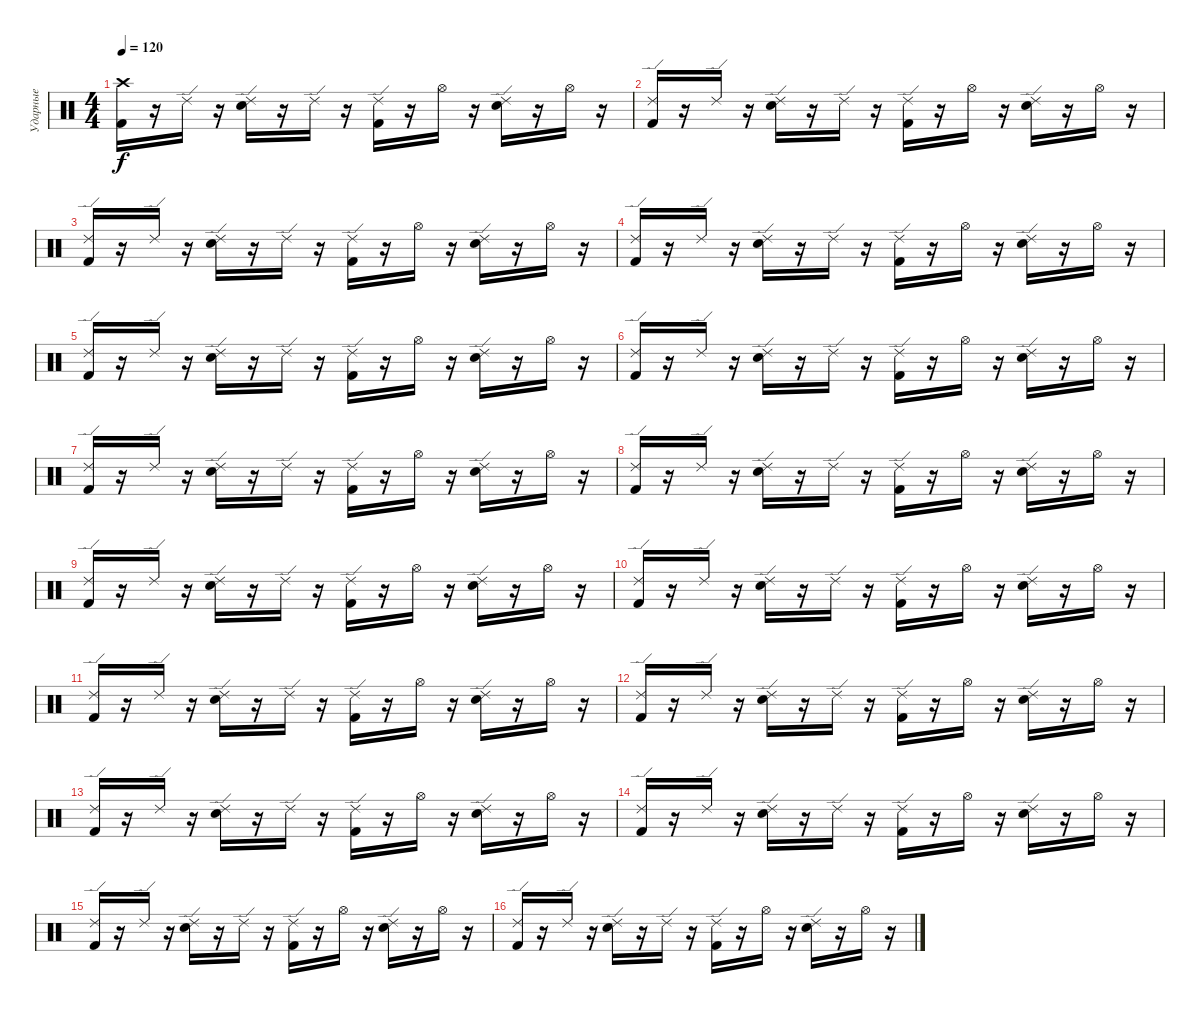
\track ("Ударные" "Ударные") {instrument percussion}
\staff {score}
\articulation defaults
\ts (4 4)
\tempo 120
\clef neutral
\ks c
("Crash high (hit)" "Kick (hit) 2").16{dy f} r.16 "Ride (edge) 2".16 r.16 ("Ride (edge) 2" "Electric Snare (hit)").16 r.16 "Ride (edge) 2".16 r.16 ("Ride (edge) 2" "Kick (hit) 2").16 r.16 "Hi-Hat (open)".16 r.16 ("Ride (edge) 2" "Electric Snare (hit)").16 r.16 "Hi-Hat (open)".16 r.16 |
("Ride (edge) 2" "Kick (hit) 2").16 r.16 "Ride (edge) 2".16 r.16 ("Ride (edge) 2" "Electric Snare (hit)").16 r.16 "Ride (edge) 2".16 r.16 ("Ride (edge) 2" "Kick (hit) 2").16 r.16 "Hi-Hat (open)".16 r.16 ("Ride (edge) 2" "Electric Snare (hit)").16 r.16 "Hi-Hat (open)".16 r.16 |
("Ride (edge) 2" "Kick (hit) 2").16 r.16 "Ride (edge) 2".16 r.16 ("Ride (edge) 2" "Electric Snare (hit)").16 r.16 "Ride (edge) 2".16 r.16 ("Ride (edge) 2" "Kick (hit) 2").16 r.16 "Hi-Hat (open)".16 r.16 ("Ride (edge) 2" "Electric Snare (hit)").16 r.16 "Hi-Hat (open)".16 r.16 |
("Ride (edge) 2" "Kick (hit) 2").16 r.16 "Ride (edge) 2".16 r.16 ("Ride (edge) 2" "Electric Snare (hit)").16 r.16 "Ride (edge) 2".16 r.16 ("Ride (edge) 2" "Kick (hit) 2").16 r.16 "Hi-Hat (open)".16 r.16 ("Ride (edge) 2" "Electric Snare (hit)").16 r.16 "Hi-Hat (open)".16 r.16 |
("Ride (edge) 2" "Kick (hit) 2").16 r.16 "Ride (edge) 2".16 r.16 ("Ride (edge) 2" "Electric Snare (hit)").16 r.16 "Ride (edge) 2".16 r.16 ("Ride (edge) 2" "Kick (hit) 2").16 r.16 "Hi-Hat (open)".16 r.16 ("Ride (edge) 2" "Electric Snare (hit)").16 r.16 "Hi-Hat (open)".16 r.16 |
("Ride (edge) 2" "Kick (hit) 2").16 r.16 "Ride (edge) 2".16 r.16 ("Ride (edge) 2" "Electric Snare (hit)").16 r.16 "Ride (edge) 2".16 r.16 ("Ride (edge) 2" "Kick (hit) 2").16 r.16 "Hi-Hat (open)".16 r.16 ("Ride (edge) 2" "Electric Snare (hit)").16 r.16 "Hi-Hat (open)".16 r.16 |
("Ride (edge) 2" "Kick (hit) 2").16 r.16 "Ride (edge) 2".16 r.16 ("Ride (edge) 2" "Electric Snare (hit)").16 r.16 "Ride (edge) 2".16 r.16 ("Ride (edge) 2" "Kick (hit) 2").16 r.16 "Hi-Hat (open)".16 r.16 ("Ride (edge) 2" "Electric Snare (hit)").16 r.16 "Hi-Hat (open)".16 r.16 |
("Ride (edge) 2" "Kick (hit) 2").16 r.16 "Ride (edge) 2".16 r.16 ("Ride (edge) 2" "Electric Snare (hit)").16 r.16 "Ride (edge) 2".16 r.16 ("Ride (edge) 2" "Kick (hit) 2").16 r.16 "Hi-Hat (open)".16 r.16 ("Ride (edge) 2" "Electric Snare (hit)").16 r.16 "Hi-Hat (open)".16 r.16 |
("Ride (edge) 2" "Kick (hit) 2").16 r.16 "Ride (edge) 2".16 r.16 ("Ride (edge) 2" "Electric Snare (hit)").16 r.16 "Ride (edge) 2".16 r.16 ("Ride (edge) 2" "Kick (hit) 2").16 r.16 "Hi-Hat (open)".16 r.16 ("Ride (edge) 2" "Electric Snare (hit)").16 r.16 "Hi-Hat (open)".16 r.16 |
("Ride (edge) 2" "Kick (hit) 2").16 r.16 "Ride (edge) 2".16 r.16 ("Ride (edge) 2" "Electric Snare (hit)").16 r.16 "Ride (edge) 2".16 r.16 ("Ride (edge) 2" "Kick (hit) 2").16 r.16 "Hi-Hat (open)".16 r.16 ("Ride (edge) 2" "Electric Snare (hit)").16 r.16 "Hi-Hat (open)".16 r.16 |
("Ride (edge) 2" "Kick (hit) 2").16 r.16 "Ride (edge) 2".16 r.16 ("Ride (edge) 2" "Electric Snare (hit)").16 r.16 "Ride (edge) 2".16 r.16 ("Ride (edge) 2" "Kick (hit) 2").16 r.16 "Hi-Hat (open)".16 r.16 ("Ride (edge) 2" "Electric Snare (hit)").16 r.16 "Hi-Hat (open)".16 r.16 |
("Ride (edge) 2" "Kick (hit) 2").16 r.16 "Ride (edge) 2".16 r.16 ("Ride (edge) 2" "Electric Snare (hit)").16 r.16 "Ride (edge) 2".16 r.16 ("Ride (edge) 2" "Kick (hit) 2").16 r.16 "Hi-Hat (open)".16 r.16 ("Ride (edge) 2" "Electric Snare (hit)").16 r.16 "Hi-Hat (open)".16 r.16 |
("Ride (edge) 2" "Kick (hit) 2").16 r.16 "Ride (edge) 2".16 r.16 ("Ride (edge) 2" "Electric Snare (hit)").16 r.16 "Ride (edge) 2".16 r.16 ("Ride (edge) 2" "Kick (hit) 2").16 r.16 "Hi-Hat (open)".16 r.16 ("Ride (edge) 2" "Electric Snare (hit)").16 r.16 "Hi-Hat (open)".16 r.16 |
("Ride (edge) 2" "Kick (hit) 2").16 r.16 "Ride (edge) 2".16 r.16 ("Ride (edge) 2" "Electric Snare (hit)").16 r.16 "Ride (edge) 2".16 r.16 ("Ride (edge) 2" "Kick (hit) 2").16 r.16 "Hi-Hat (open)".16 r.16 ("Ride (edge) 2" "Electric Snare (hit)").16 r.16 "Hi-Hat (open)".16 r.16 |
("Ride (edge) 2" "Kick (hit) 2").16 r.16 "Ride (edge) 2".16 r.16 ("Ride (edge) 2" "Electric Snare (hit)").16 r.16 "Ride (edge) 2".16 r.16 ("Ride (edge) 2" "Kick (hit) 2").16 r.16 "Hi-Hat (open)".16 r.16 ("Ride (edge) 2" "Electric Snare (hit)").16 r.16 "Hi-Hat (open)".16 r.16 |
("Ride (edge) 2" "Kick (hit) 2").16 r.16 "Ride (edge) 2".16 r.16 ("Ride (edge) 2" "Electric Snare (hit)").16 r.16 "Ride (edge) 2".16 r.16 ("Ride (edge) 2" "Kick (hit) 2").16 r.16 "Hi-Hat (open)".16 r.16 ("Ride (edge) 2" "Electric Snare (hit)").16 r.16 "Hi-Hat (open)".16 r.16
